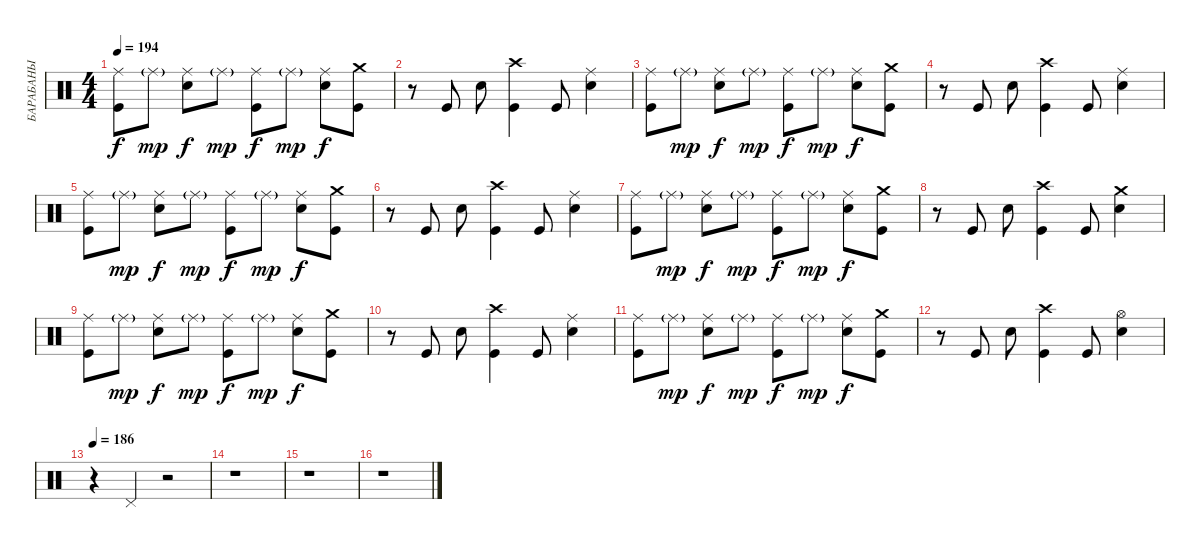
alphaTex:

\track ("БАРАБАНЫ" "БАРАБАНЫ") {instrument percussion}
\staff {score}
\articulation defaults
\ts (4 4)
\tempo 194
\clef neutral
\ks c
("Ride (middle)" "Kick (hit)").8{dy f} "Ride (middle)"{g}.8{dy mp} ("Ride (middle)" "Electric Snare (hit)").8{dy f} "Ride (middle)"{g}.8{dy mp} ("Ride (middle)" "Kick (hit)").8{dy f} "Ride (middle)"{g}.8{dy mp} ("Ride (middle)" "Electric Snare (hit)").8{dy f} ("Crash medium (hit)" "Kick (hit)").8 |
r.8 "Kick (hit)".8 "Electric Snare (hit)".8 ("Crash high (hit)" "Kick (hit)").4 "Kick (hit)".8 ("Ride (middle)" "Electric Snare (hit)").4 |
("Ride (middle)" "Kick (hit)").8 "Ride (middle)"{g}.8{dy mp} ("Ride (middle)" "Electric Snare (hit)").8{dy f} "Ride (middle)"{g}.8{dy mp} ("Ride (middle)" "Kick (hit)").8{dy f} "Ride (middle)"{g}.8{dy mp} ("Ride (middle)" "Electric Snare (hit)").8{dy f} ("Crash medium (hit)" "Kick (hit)").8 |
r.8 "Kick (hit)".8 "Electric Snare (hit)".8 ("Crash high (hit)" "Kick (hit)").4 "Kick (hit)".8 ("Ride (middle)" "Electric Snare (hit)").4 |
("Ride (middle)" "Kick (hit)").8 "Ride (middle)"{g}.8{dy mp} ("Ride (middle)" "Electric Snare (hit)").8{dy f} "Ride (middle)"{g}.8{dy mp} ("Ride (middle)" "Kick (hit)").8{dy f} "Ride (middle)"{g}.8{dy mp} ("Ride (middle)" "Electric Snare (hit)").8{dy f} ("Crash medium (hit)" "Kick (hit)").8 |
r.8 "Kick (hit)".8 "Electric Snare (hit)".8 ("Crash high (hit)" "Kick (hit)").4 "Kick (hit)".8 ("Ride (middle)" "Electric Snare (hit)").4 |
("Ride (middle)" "Kick (hit)").8 "Ride (middle)"{g}.8{dy mp} ("Ride (middle)" "Electric Snare (hit)").8{dy f} "Ride (middle)"{g}.8{dy mp} ("Ride (middle)" "Kick (hit)").8{dy f} "Ride (middle)"{g}.8{dy mp} ("Ride (middle)" "Electric Snare (hit)").8{dy f} ("Crash medium (hit)" "Kick (hit)").8 |
r.8 "Kick (hit)".8 "Electric Snare (hit)".8 ("Crash high (hit)" "Kick (hit)").4 "Kick (hit)".8 ("Crash medium (hit)" "Electric Snare (hit)").4 |
("Ride (middle)" "Kick (hit)").8 "Ride (middle)"{g}.8{dy mp} ("Ride (middle)" "Electric Snare (hit)").8{dy f} "Ride (middle)"{g}.8{dy mp} ("Ride (middle)" "Kick (hit)").8{dy f} "Ride (middle)"{g}.8{dy mp} ("Ride (middle)" "Electric Snare (hit)").8{dy f} ("Crash medium (hit)" "Kick (hit)").8 |
r.8 "Kick (hit)".8 "Electric Snare (hit)".8 ("Crash high (hit)" "Kick (hit)").4 "Kick (hit)".8 ("Ride (middle)" "Electric Snare (hit)").4 |
("Ride (middle)" "Kick (hit)").8 "Ride (middle)"{g}.8{dy mp} ("Ride (middle)" "Electric Snare (hit)").8{dy f} "Ride (middle)"{g}.8{dy mp} ("Ride (middle)" "Kick (hit)").8{dy f} "Ride (middle)"{g}.8{dy mp} ("Ride (middle)" "Electric Snare (hit)").8{dy f} ("Crash medium (hit)" "Kick (hit)").8 |
r.8 "Kick (hit)".8 "Electric Snare (hit)".8 ("Crash high (hit)" "Kick (hit)").4 "Kick (hit)".8 ("Hi-Hat (open)" "Electric Snare (hit)").4 |
\tempo 186
r.4 "Pedal Hi-Hat (hit)".4 r.2 |
r.1 |
r.1 |
r.1
